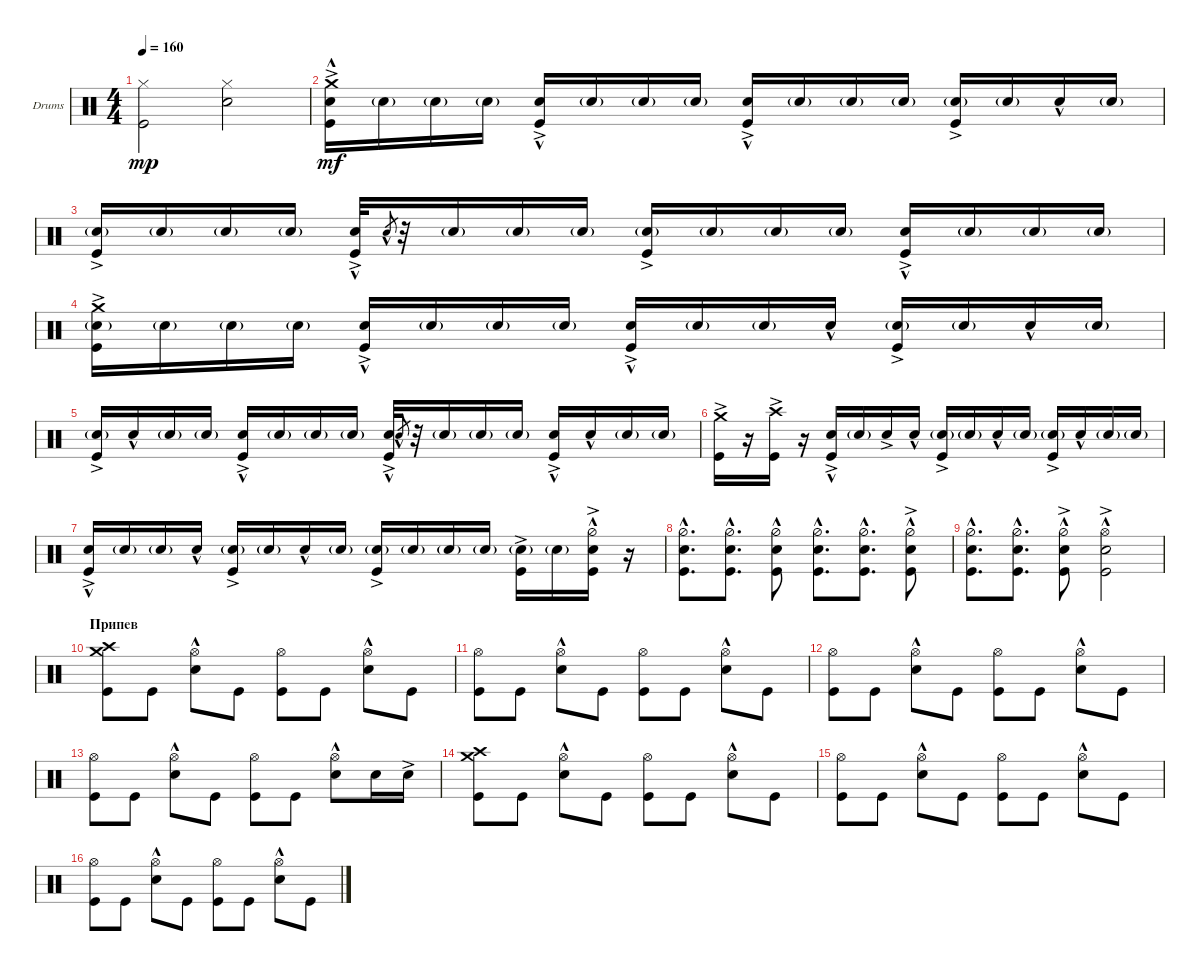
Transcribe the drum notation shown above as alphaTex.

\defaultSystemsLayout 4
\bracketExtendMode groupsimilarinstruments
\firstSystemTrackNameOrientation horizontal
\otherSystemsTrackNameOrientation horizontal
\track ("Drumkit" "Drums") {instrument percussion}
\staff {score}
\articulation defaults
\ts (4 4)
\tempo 160
\clef neutral
\ks c
("Kick (hit)" "Hi-Hat (closed)").2{dy mp} ("Snare (hit) 2" "Hi-Hat (closed)").2 |
("Kick (hit)"{ac} "Snare (hit) 2"{hac} "Crash medium (hit)").16{dy mf} "Snare (hit) 2"{g}.16 "Snare (hit) 2"{g}.16 "Snare (hit) 2"{g}.16 ("Kick (hit)"{ac} "Snare (hit) 2"{hac}).16 "Snare (hit) 2"{g}.16 "Snare (hit) 2"{g}.16 "Snare (hit) 2"{g}.16 ("Kick (hit)"{ac} "Snare (hit) 2"{hac}).16 "Snare (hit) 2"{g}.16 "Snare (hit) 2"{g}.16 "Snare (hit) 2"{g}.16 ("Kick (hit)"{ac} "Snare (hit) 2"{g}).16 "Snare (hit) 2"{g}.16 "Snare (hit) 2"{hac}.16 "Snare (hit) 2"{g}.16 |
("Kick (hit)"{ac} "Snare (hit) 2"{g}).16 "Snare (hit) 2"{g}.16 "Snare (hit) 2"{g}.16 "Snare (hit) 2"{g}.16 ("Kick (hit)"{ac} "Snare (hit) 2"{hac}).32 "Snare (hit) 2"{hac}.8{gr} r.32 "Snare (hit) 2"{g}.16 "Snare (hit) 2"{g}.16 "Snare (hit) 2"{g}.16 ("Kick (hit)"{ac} "Snare (hit) 2"{g}).16 "Snare (hit) 2"{g}.16 "Snare (hit) 2"{g}.16 "Snare (hit) 2"{g}.16 ("Kick (hit)"{ac} "Snare (hit) 2"{hac}).16 "Snare (hit) 2"{g}.16 "Snare (hit) 2"{g}.16 "Snare (hit) 2"{g}.16 |
("Kick (hit)"{ac} "Snare (hit) 2"{g} "Crash medium (hit)").16 "Snare (hit) 2"{g}.16 "Snare (hit) 2"{g}.16 "Snare (hit) 2"{g}.16 ("Kick (hit)"{ac} "Snare (hit) 2"{hac}).16 "Snare (hit) 2"{g}.16 "Snare (hit) 2"{g}.16 "Snare (hit) 2"{g}.16 ("Kick (hit)"{ac} "Snare (hit) 2"{hac}).16 "Snare (hit) 2"{g}.16 "Snare (hit) 2"{g}.16 "Snare (hit) 2"{hac}.16 ("Kick (hit)"{ac} "Snare (hit) 2"{g}).16 "Snare (hit) 2"{g}.16 "Snare (hit) 2"{hac}.16 "Snare (hit) 2"{g}.16 |
("Kick (hit)"{ac} "Snare (hit) 2"{g}).16 "Snare (hit) 2"{hac}.16 "Snare (hit) 2"{g}.16 "Snare (hit) 2"{g}.16 ("Kick (hit)"{ac} "Snare (hit) 2"{hac}).16 "Snare (hit) 2"{g}.16 "Snare (hit) 2"{g}.16 "Snare (hit) 2"{g}.16 ("Kick (hit)"{ac} "Snare (hit) 2"{hac}).32 "Snare (hit) 2"{hac}.8{gr} r.32 "Snare (hit) 2"{g}.16 "Snare (hit) 2"{g}.16 "Snare (hit) 2"{g}.16 ("Kick (hit)"{ac} "Snare (hit) 2"{hac}).16 "Snare (hit) 2"{hac}.16 "Snare (hit) 2"{g}.16 "Snare (hit) 2"{g}.16 |
("Kick (hit)"{ac} "Crash medium (hit)").16 r.16 ("Kick (hit)"{ac} "Crash high (hit)").16 r.16 ("Kick (hit)"{ac} "Snare (hit) 2"{hac}).16 "Snare (hit) 2"{g}.16 "Snare (hit) 2"{ac}.16 "Snare (hit) 2"{hac}.16 ("Kick (hit)"{ac} "Snare (hit) 2"{g}).16 "Snare (hit) 2"{g}.16 "Snare (hit) 2"{hac}.16 "Snare (hit) 2"{g}.16 ("Kick (hit)"{ac} "Snare (hit) 2"{g}).16 "Snare (hit) 2"{hac}.16 "Snare (hit) 2"{g}.16 "Snare (hit) 2"{g}.16 |
("Kick (hit)"{ac} "Snare (hit) 2"{hac}).16 "Snare (hit) 2"{g}.16 "Snare (hit) 2"{g}.16 "Snare (hit) 2"{hac}.16 ("Kick (hit)"{ac} "Snare (hit) 2"{g}).16 "Snare (hit) 2"{g}.16 "Snare (hit) 2"{hac}.16 "Snare (hit) 2"{g}.16 ("Kick (hit)"{ac} "Snare (hit) 2"{g}).16 "Snare (hit) 2"{g}.16 "Snare (hit) 2"{g}.16 "Snare (hit) 2"{g}.16 ("Kick (hit)"{ac} "Snare (hit) 2"{g}).16 "Snare (hit) 2"{g}.16 ("Snare (hit) 2"{hac} "Hi-Hat (half)"{ac} "Kick (hit)").16 r.16 |
("Snare (hit) 2"{hac} "Hi-Hat (half)"{hac} "Kick (hit)").8{d} ("Snare (hit) 2"{hac} "Hi-Hat (half)"{hac} "Kick (hit)").8{d} ("Snare (hit) 2"{hac} "Hi-Hat (half)"{hac} "Kick (hit)").8 ("Snare (hit) 2"{hac} "Hi-Hat (half)"{hac} "Kick (hit)").8{d} ("Snare (hit) 2"{hac} "Hi-Hat (half)"{hac} "Kick (hit)").8{d} ("Snare (hit) 2"{hac} "Hi-Hat (half)"{ac} "Kick (hit)").8 |
("Snare (hit) 2"{hac} "Hi-Hat (half)"{hac} "Kick (hit)").8{d} ("Snare (hit) 2"{hac} "Hi-Hat (half)"{hac} "Kick (hit)").8{d} ("Snare (hit) 2"{hac} "Hi-Hat (half)"{ac} "Kick (hit)").8 ("Snare (hit) 2"{hac} "Hi-Hat (open)"{ac} "Kick (hit)").2 |
\section ("" "Припев")
("Kick (hit)" "Crash high (hit)" "Crash medium (hit)").8 "Kick (hit)".8 ("Snare (hit) 2"{hac} "Hi-Hat (open)").8 "Kick (hit)".8 ("Kick (hit)" "Hi-Hat (open)").8 "Kick (hit)".8 ("Snare (hit) 2"{hac} "Hi-Hat (open)").8 "Kick (hit)".8 |
("Kick (hit)" "Hi-Hat (open)").8 "Kick (hit)".8 ("Snare (hit) 2"{hac} "Hi-Hat (open)").8 "Kick (hit)".8 ("Kick (hit)" "Hi-Hat (open)").8 "Kick (hit)".8 ("Snare (hit) 2"{hac} "Hi-Hat (open)").8 "Kick (hit)".8 |
("Kick (hit)" "Hi-Hat (open)").8 "Kick (hit)".8 ("Snare (hit) 2"{hac} "Hi-Hat (open)").8 "Kick (hit)".8 ("Kick (hit)" "Hi-Hat (open)").8 "Kick (hit)".8 ("Snare (hit) 2"{hac} "Hi-Hat (open)").8 "Kick (hit)".8 |
("Kick (hit)" "Hi-Hat (open)").8 "Kick (hit)".8 ("Snare (hit) 2"{hac} "Hi-Hat (open)").8 "Kick (hit)".8 ("Kick (hit)" "Hi-Hat (open)").8 "Kick (hit)".8 ("Snare (hit) 2"{hac} "Hi-Hat (open)").8 "Snare (hit) 2".16 "Snare (hit) 2"{ac}.16 |
("Kick (hit)" "Crash high (hit)" "Crash medium (hit)").8 "Kick (hit)".8 ("Snare (hit) 2"{hac} "Hi-Hat (open)").8 "Kick (hit)".8 ("Kick (hit)" "Hi-Hat (open)").8 "Kick (hit)".8 ("Snare (hit) 2"{hac} "Hi-Hat (open)").8 "Kick (hit)".8 |
("Kick (hit)" "Hi-Hat (open)").8 "Kick (hit)".8 ("Snare (hit) 2"{hac} "Hi-Hat (open)").8 "Kick (hit)".8 ("Kick (hit)" "Hi-Hat (open)").8 "Kick (hit)".8 ("Snare (hit) 2"{hac} "Hi-Hat (open)").8 "Kick (hit)".8 |
("Kick (hit)" "Hi-Hat (open)").8 "Kick (hit)".8 ("Snare (hit) 2"{hac} "Hi-Hat (open)").8 "Kick (hit)".8 ("Kick (hit)" "Hi-Hat (open)").8 "Kick (hit)".8 ("Snare (hit) 2"{hac} "Hi-Hat (open)").8 "Kick (hit)".8
